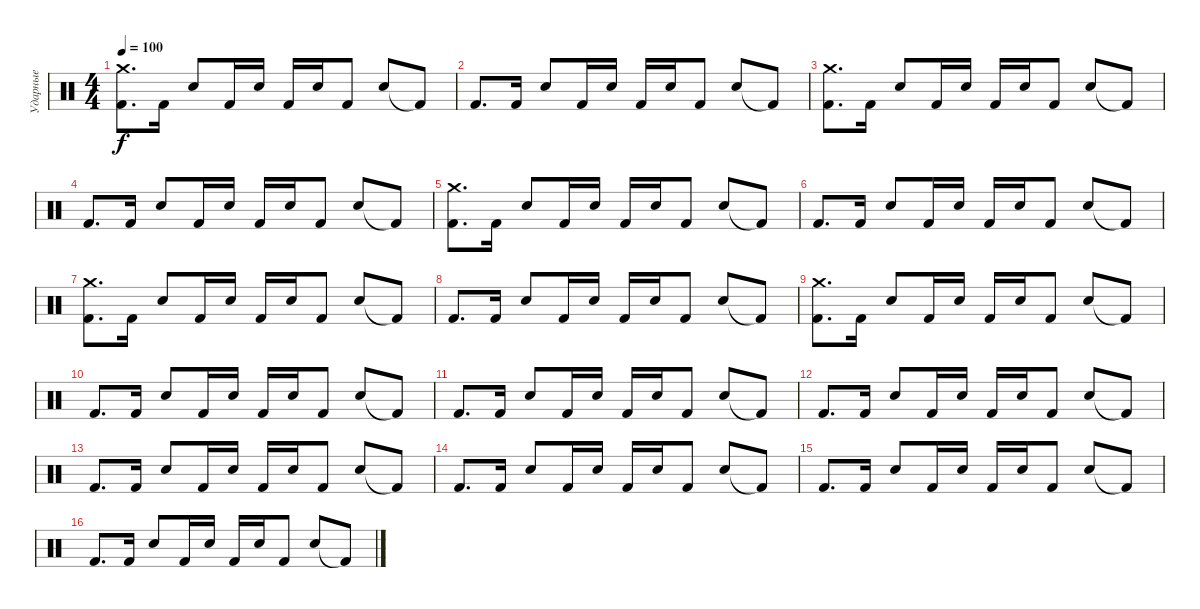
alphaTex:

\track ("Ударные" "Ударные") {instrument percussion}
\staff {score}
\articulation defaults
\ts (4 4)
\tempo 100
\clef neutral
\ks c
("Kick (hit) 2" "Crash medium (hit)").8{d dy f} "Kick (hit) 2".16 "Snare (hit) 2".8 "Kick (hit) 2".16 "Snare (hit) 2".16 "Kick (hit) 2".16 "Snare (hit) 2".16 "Kick (hit) 2".8 "Snare (hit) 2".8 "Kick (hit) 2"{t}.8 |
"Kick (hit) 2".8{d} "Kick (hit) 2".16 "Snare (hit) 2".8 "Kick (hit) 2".16 "Snare (hit) 2".16 "Kick (hit) 2".16 "Snare (hit) 2".16 "Kick (hit) 2".8 "Snare (hit) 2".8 "Kick (hit) 2"{t}.8 |
("Kick (hit) 2" "Crash medium (hit)").8{d} "Kick (hit) 2".16 "Snare (hit) 2".8 "Kick (hit) 2".16 "Snare (hit) 2".16 "Kick (hit) 2".16 "Snare (hit) 2".16 "Kick (hit) 2".8 "Snare (hit) 2".8 "Kick (hit) 2"{t}.8 |
"Kick (hit) 2".8{d} "Kick (hit) 2".16 "Snare (hit) 2".8 "Kick (hit) 2".16 "Snare (hit) 2".16 "Kick (hit) 2".16 "Snare (hit) 2".16 "Kick (hit) 2".8 "Snare (hit) 2".8 "Kick (hit) 2"{t}.8 |
("Kick (hit) 2" "Crash medium (hit)").8{d} "Kick (hit) 2".16 "Snare (hit) 2".8 "Kick (hit) 2".16 "Snare (hit) 2".16 "Kick (hit) 2".16 "Snare (hit) 2".16 "Kick (hit) 2".8 "Snare (hit) 2".8 "Kick (hit) 2"{t}.8 |
"Kick (hit) 2".8{d} "Kick (hit) 2".16 "Snare (hit) 2".8 "Kick (hit) 2".16 "Snare (hit) 2".16 "Kick (hit) 2".16 "Snare (hit) 2".16 "Kick (hit) 2".8 "Snare (hit) 2".8 "Kick (hit) 2"{t}.8 |
("Kick (hit) 2" "Crash medium (hit)").8{d} "Kick (hit) 2".16 "Snare (hit) 2".8 "Kick (hit) 2".16 "Snare (hit) 2".16 "Kick (hit) 2".16 "Snare (hit) 2".16 "Kick (hit) 2".8 "Snare (hit) 2".8 "Kick (hit) 2"{t}.8 |
"Kick (hit) 2".8{d} "Kick (hit) 2".16 "Snare (hit) 2".8 "Kick (hit) 2".16 "Snare (hit) 2".16 "Kick (hit) 2".16 "Snare (hit) 2".16 "Kick (hit) 2".8 "Snare (hit) 2".8 "Kick (hit) 2"{t}.8 |
("Kick (hit) 2" "Crash medium (hit)").8{d} "Kick (hit) 2".16 "Snare (hit) 2".8 "Kick (hit) 2".16 "Snare (hit) 2".16 "Kick (hit) 2".16 "Snare (hit) 2".16 "Kick (hit) 2".8 "Snare (hit) 2".8 "Kick (hit) 2"{t}.8 |
"Kick (hit) 2".8{d} "Kick (hit) 2".16 "Snare (hit) 2".8 "Kick (hit) 2".16 "Snare (hit) 2".16 "Kick (hit) 2".16 "Snare (hit) 2".16 "Kick (hit) 2".8 "Snare (hit) 2".8 "Kick (hit) 2"{t}.8 |
"Kick (hit) 2".8{d} "Kick (hit) 2".16 "Snare (hit) 2".8 "Kick (hit) 2".16 "Snare (hit) 2".16 "Kick (hit) 2".16 "Snare (hit) 2".16 "Kick (hit) 2".8 "Snare (hit) 2".8 "Kick (hit) 2"{t}.8 |
"Kick (hit) 2".8{d} "Kick (hit) 2".16 "Snare (hit) 2".8 "Kick (hit) 2".16 "Snare (hit) 2".16 "Kick (hit) 2".16 "Snare (hit) 2".16 "Kick (hit) 2".8 "Snare (hit) 2".8 "Kick (hit) 2"{t}.8 |
"Kick (hit) 2".8{d} "Kick (hit) 2".16 "Snare (hit) 2".8 "Kick (hit) 2".16 "Snare (hit) 2".16 "Kick (hit) 2".16 "Snare (hit) 2".16 "Kick (hit) 2".8 "Snare (hit) 2".8 "Kick (hit) 2"{t}.8 |
"Kick (hit) 2".8{d} "Kick (hit) 2".16 "Snare (hit) 2".8 "Kick (hit) 2".16 "Snare (hit) 2".16 "Kick (hit) 2".16 "Snare (hit) 2".16 "Kick (hit) 2".8 "Snare (hit) 2".8 "Kick (hit) 2"{t}.8 |
"Kick (hit) 2".8{d} "Kick (hit) 2".16 "Snare (hit) 2".8 "Kick (hit) 2".16 "Snare (hit) 2".16 "Kick (hit) 2".16 "Snare (hit) 2".16 "Kick (hit) 2".8 "Snare (hit) 2".8 "Kick (hit) 2"{t}.8 |
"Kick (hit) 2".8{d} "Kick (hit) 2".16 "Snare (hit) 2".8 "Kick (hit) 2".16 "Snare (hit) 2".16 "Kick (hit) 2".16 "Snare (hit) 2".16 "Kick (hit) 2".8 "Snare (hit) 2".8 "Kick (hit) 2"{t}.8
